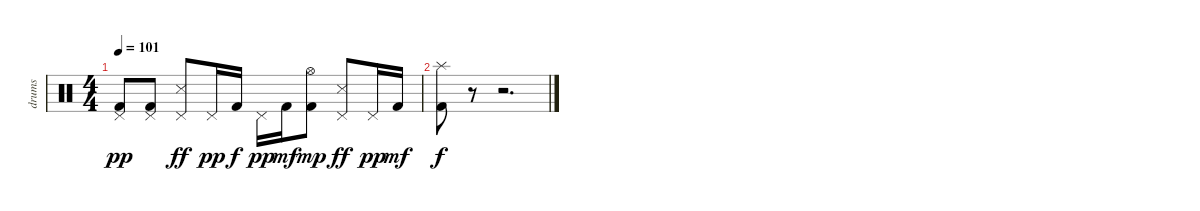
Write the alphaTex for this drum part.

\track ("drums" "drums") {instrument percussion}
\staff {score}
\articulation defaults
\ts (4 4)
\tempo 101
\clef neutral
\ks c
("Pedal Hi-Hat (hit)" "Kick (hit) 2").8{dy pp} ("Pedal Hi-Hat (hit)" "Kick (hit) 2").8 ("Pedal Hi-Hat (hit)" "Snare (side stick) 3").8{dy ff} "Pedal Hi-Hat (hit)".16{dy pp} "Kick (hit) 2".16{dy f} "Pedal Hi-Hat (hit)".16{dy pp} "Kick (hit) 2".16{dy mf} ("Hi-Hat (open)" "Kick (hit) 2").8{dy mp} ("Pedal Hi-Hat (hit)" "Snare (side stick) 3").8{dy ff} "Pedal Hi-Hat (hit)".16{dy pp} "Kick (hit) 2".16{dy mf} |
("Splash (hit)" "Kick (hit) 2").8{dy f} r.8 r.2{d}
